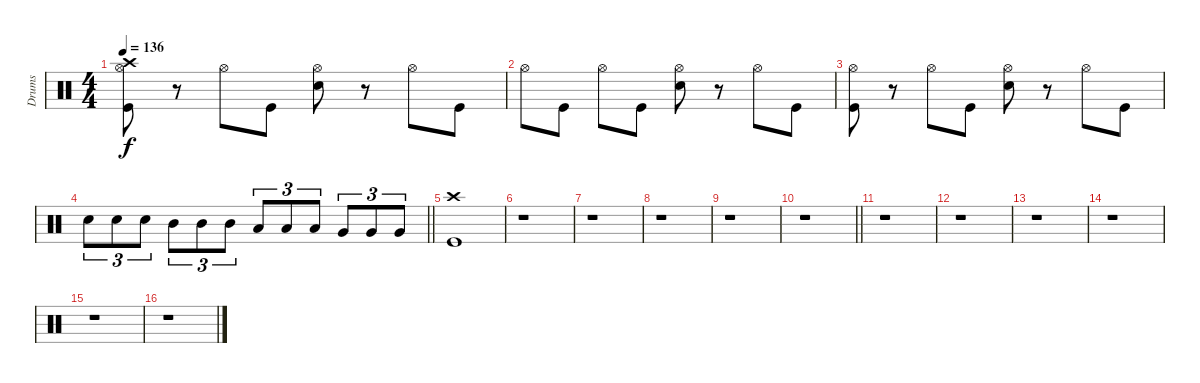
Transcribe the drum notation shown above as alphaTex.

\track ("Drums" "Drums") {instrument percussion}
\staff {score}
\articulation defaults
\ts (4 4)
\tempo 136
\clef neutral
\ks c
("Crash high (hit)" "Kick (hit)" "Hi-Hat (open)").8{dy f} r.8 "Hi-Hat (open)".8 "Kick (hit)".8 ("Snare (hit) 2" "Hi-Hat (open)").8 r.8 "Hi-Hat (open)".8 "Kick (hit)".8 |
"Hi-Hat (open)".8 "Kick (hit)".8 "Hi-Hat (open)".8 "Kick (hit)".8 ("Snare (hit) 2" "Hi-Hat (open)").8 r.8 "Hi-Hat (open)".8 "Kick (hit)".8 |
("Kick (hit)" "Hi-Hat (open)").8 r.8 "Hi-Hat (open)".8 "Kick (hit)".8 ("Snare (hit) 2" "Hi-Hat (open)").8 r.8 "Hi-Hat (open)".8 "Kick (hit)".8 |
\barLineRight lightlight "Snare (hit) 2".8{tu (3 2)} "Snare (hit) 2".8{tu (3 2)} "Snare (hit) 2".8{tu (3 2)} "Mid Tom (hit)".8{tu (3 2)} "Mid Tom (hit)".8{tu (3 2)} "Mid Tom (hit)".8{tu (3 2)} "Low Tom (hit)".8{tu (3 2)} "Low Tom (hit)".8{tu (3 2)} "Low Tom (hit)".8{tu (3 2)} "Very Low Tom (hit)".8{tu (3 2)} "Very Low Tom (hit)".8{tu (3 2)} "Very Low Tom (hit)".8{tu (3 2)}
|
("Crash high (hit)" "Kick (hit)").1 |
r.1 |
r.1 |
r.1 |
r.1 |
\barLineRight lightlight
r.1 |
r.1 |
r.1 |
r.1 |
r.1 |
r.1 |
r.1
